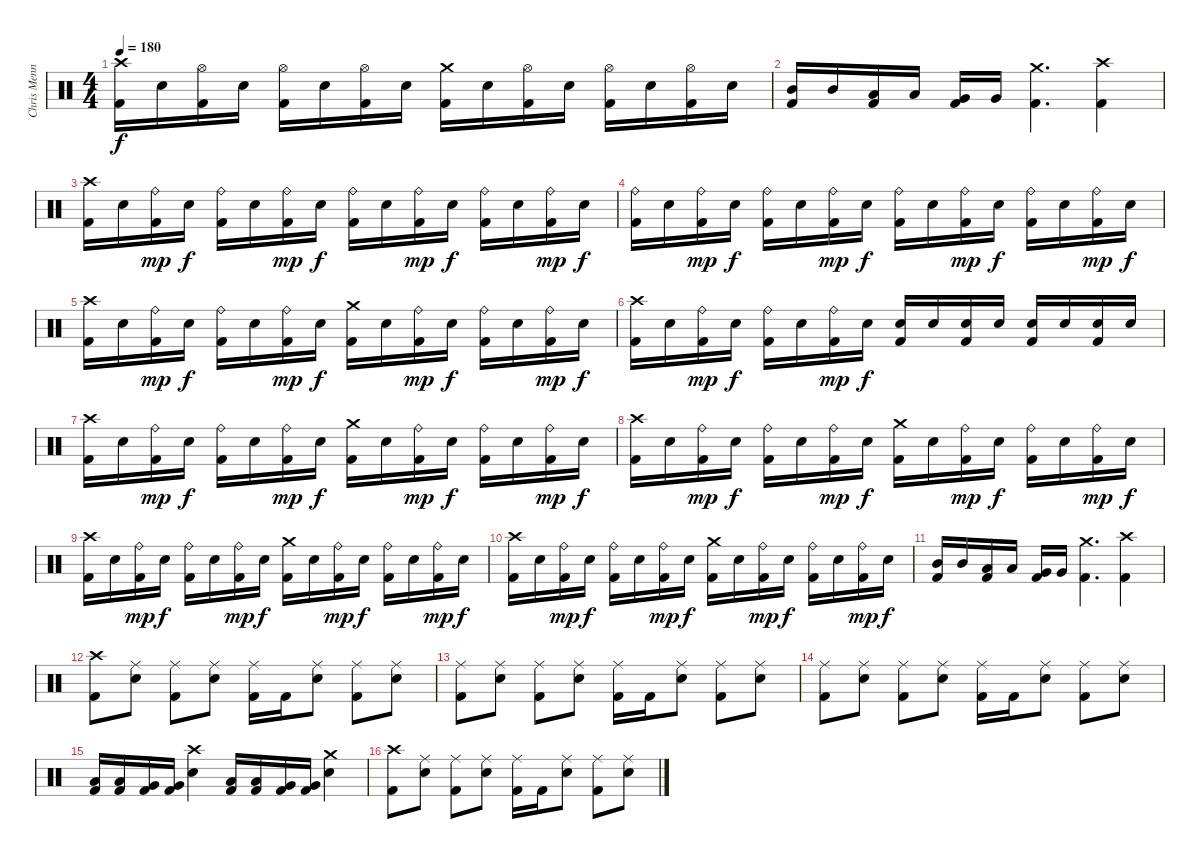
\track ("Chris Menning" "Chris Menn") {instrument percussion}
\staff {score}
\articulation defaults
\ts (4 4)
\tempo 180
\clef neutral
\ks c
("Crash high (hit)" "Kick (hit) 2").16{dy f} "Electric Snare (hit)".16 ("Hi-Hat (open)" "Kick (hit) 2").16 "Electric Snare (hit)".16 ("Hi-Hat (open)" "Kick (hit) 2").16 "Electric Snare (hit)".16 ("Hi-Hat (open)" "Kick (hit) 2").16 "Electric Snare (hit)".16 ("Crash medium (hit)" "Kick (hit) 2").16 "Electric Snare (hit)".16 ("Hi-Hat (open)" "Kick (hit) 2").16 "Electric Snare (hit)".16 ("Hi-Hat (open)" "Kick (hit) 2").16 "Electric Snare (hit)".16 ("Hi-Hat (open)" "Kick (hit) 2").16 "Electric Snare (hit)".16 |
("Mid Tom (hit)" "Kick (hit) 2").16 "Mid Tom (hit)".16 ("Low Tom (hit)" "Kick (hit) 2").16 "Low Tom (hit)".16 ("Very Low Tom (hit)" "Kick (hit) 2").16 "Very Low Tom (hit)".16 ("Crash medium (hit)" "Kick (hit) 2").4{d} ("Crash high (hit)" "Kick (hit) 2").4 |
("Crash high (hit)" "Kick (hit) 2").16 "Electric Snare (hit)".16 ("Ride (bell)" "Kick (hit) 2").16{dy mp} "Electric Snare (hit)".16{dy f} ("Ride (bell)" "Kick (hit) 2").16 "Electric Snare (hit)".16 ("Ride (bell)" "Kick (hit) 2").16{dy mp} "Electric Snare (hit)".16{dy f} ("Ride (bell)" "Kick (hit) 2").16 "Electric Snare (hit)".16 ("Ride (bell)" "Kick (hit) 2").16{dy mp} "Electric Snare (hit)".16{dy f} ("Ride (bell)" "Kick (hit) 2").16 "Electric Snare (hit)".16 ("Ride (bell)" "Kick (hit) 2").16{dy mp} "Electric Snare (hit)".16{dy f} |
("Ride (bell)" "Kick (hit) 2").16 "Electric Snare (hit)".16 ("Ride (bell)" "Kick (hit) 2").16{dy mp} "Electric Snare (hit)".16{dy f} ("Ride (bell)" "Kick (hit) 2").16 "Electric Snare (hit)".16 ("Ride (bell)" "Kick (hit) 2").16{dy mp} "Electric Snare (hit)".16{dy f} ("Ride (bell)" "Kick (hit) 2").16 "Electric Snare (hit)".16 ("Ride (bell)" "Kick (hit) 2").16{dy mp} "Electric Snare (hit)".16{dy f} ("Ride (bell)" "Kick (hit) 2").16 "Electric Snare (hit)".16 ("Ride (bell)" "Kick (hit) 2").16{dy mp} "Electric Snare (hit)".16{dy f} |
("Crash high (hit)" "Kick (hit) 2").16 "Electric Snare (hit)".16 ("Ride (bell)" "Kick (hit) 2").16{dy mp} "Electric Snare (hit)".16{dy f} ("Ride (bell)" "Kick (hit) 2").16 "Electric Snare (hit)".16 ("Ride (bell)" "Kick (hit) 2").16{dy mp} "Electric Snare (hit)".16{dy f} ("Crash medium (hit)" "Kick (hit) 2").16 "Electric Snare (hit)".16 ("Ride (bell)" "Kick (hit) 2").16{dy mp} "Electric Snare (hit)".16{dy f} ("Ride (bell)" "Kick (hit) 2").16 "Electric Snare (hit)".16 ("Ride (bell)" "Kick (hit) 2").16{dy mp} "Electric Snare (hit)".16{dy f} |
("Crash high (hit)" "Kick (hit) 2").16 "Electric Snare (hit)".16 ("Ride (bell)" "Kick (hit) 2").16{dy mp} "Electric Snare (hit)".16{dy f} ("Ride (bell)" "Kick (hit) 2").16 "Electric Snare (hit)".16 ("Ride (bell)" "Kick (hit) 2").16{dy mp} "Electric Snare (hit)".16{dy f} ("Electric Snare (hit)" "Kick (hit) 2").16 "Electric Snare (hit)".16 ("Electric Snare (hit)" "Kick (hit) 2").16 "Electric Snare (hit)".16 ("Electric Snare (hit)" "Kick (hit) 2").16 "Electric Snare (hit)".16 ("Electric Snare (hit)" "Kick (hit) 2").16 "Electric Snare (hit)".16 |
("Crash high (hit)" "Kick (hit) 2").16 "Electric Snare (hit)".16 ("Ride (bell)" "Kick (hit) 2").16{dy mp} "Electric Snare (hit)".16{dy f} ("Ride (bell)" "Kick (hit) 2").16 "Electric Snare (hit)".16 ("Ride (bell)" "Kick (hit) 2").16{dy mp} "Electric Snare (hit)".16{dy f} ("Crash medium (hit)" "Kick (hit) 2").16 "Electric Snare (hit)".16 ("Ride (bell)" "Kick (hit) 2").16{dy mp} "Electric Snare (hit)".16{dy f} ("Ride (bell)" "Kick (hit) 2").16 "Electric Snare (hit)".16 ("Ride (bell)" "Kick (hit) 2").16{dy mp} "Electric Snare (hit)".16{dy f} |
("Crash high (hit)" "Kick (hit) 2").16 "Electric Snare (hit)".16 ("Ride (bell)" "Kick (hit) 2").16{dy mp} "Electric Snare (hit)".16{dy f} ("Ride (bell)" "Kick (hit) 2").16 "Electric Snare (hit)".16 ("Ride (bell)" "Kick (hit) 2").16{dy mp} "Electric Snare (hit)".16{dy f} ("Crash medium (hit)" "Kick (hit) 2").16 "Electric Snare (hit)".16 ("Ride (bell)" "Kick (hit) 2").16{dy mp} "Electric Snare (hit)".16{dy f} ("Ride (bell)" "Kick (hit) 2").16 "Electric Snare (hit)".16 ("Ride (bell)" "Kick (hit) 2").16{dy mp} "Electric Snare (hit)".16{dy f} |
("Crash high (hit)" "Kick (hit) 2").16 "Electric Snare (hit)".16 ("Ride (bell)" "Kick (hit) 2").16{dy mp} "Electric Snare (hit)".16{dy f} ("Ride (bell)" "Kick (hit) 2").16 "Electric Snare (hit)".16 ("Ride (bell)" "Kick (hit) 2").16{dy mp} "Electric Snare (hit)".16{dy f} ("Crash medium (hit)" "Kick (hit) 2").16 "Electric Snare (hit)".16 ("Ride (bell)" "Kick (hit) 2").16{dy mp} "Electric Snare (hit)".16{dy f} ("Ride (bell)" "Kick (hit) 2").16 "Electric Snare (hit)".16 ("Ride (bell)" "Kick (hit) 2").16{dy mp} "Electric Snare (hit)".16{dy f} |
("Crash high (hit)" "Kick (hit) 2").16 "Electric Snare (hit)".16 ("Ride (bell)" "Kick (hit) 2").16{dy mp} "Electric Snare (hit)".16{dy f} ("Ride (bell)" "Kick (hit) 2").16 "Electric Snare (hit)".16 ("Ride (bell)" "Kick (hit) 2").16{dy mp} "Electric Snare (hit)".16{dy f} ("Crash medium (hit)" "Kick (hit) 2").16 "Electric Snare (hit)".16 ("Ride (bell)" "Kick (hit) 2").16{dy mp} "Electric Snare (hit)".16{dy f} ("Ride (bell)" "Kick (hit) 2").16 "Electric Snare (hit)".16 ("Ride (bell)" "Kick (hit) 2").16{dy mp} "Electric Snare (hit)".16{dy f} |
("Mid Tom (hit)" "Kick (hit) 2").16 "Mid Tom (hit)".16 ("Low Tom (hit)" "Kick (hit) 2").16 "Low Tom (hit)".16 ("Very Low Tom (hit)" "Kick (hit) 2").16 "Very Low Tom (hit)".16 ("Crash medium (hit)" "Kick (hit) 2").4{d} ("Crash high (hit)" "Kick (hit) 2").4 |
("Crash high (hit)" "Kick (hit) 2").8 ("Ride (middle)" "Electric Snare (hit)").8 ("Ride (middle)" "Kick (hit) 2").8 ("Ride (middle)" "Electric Snare (hit)").8 ("Ride (middle)" "Kick (hit) 2").16 "Kick (hit) 2".16 ("Ride (middle)" "Electric Snare (hit)").8 ("Ride (middle)" "Kick (hit) 2").8 ("Ride (middle)" "Electric Snare (hit)").8 |
("Ride (middle)" "Kick (hit) 2").8 ("Ride (middle)" "Electric Snare (hit)").8 ("Ride (middle)" "Kick (hit) 2").8 ("Ride (middle)" "Electric Snare (hit)").8 ("Ride (middle)" "Kick (hit) 2").16 "Kick (hit) 2".16 ("Ride (middle)" "Electric Snare (hit)").8 ("Ride (middle)" "Kick (hit) 2").8 ("Ride (middle)" "Electric Snare (hit)").8 |
("Ride (middle)" "Kick (hit) 2").8 ("Ride (middle)" "Electric Snare (hit)").8 ("Ride (middle)" "Kick (hit) 2").8 ("Ride (middle)" "Electric Snare (hit)").8 ("Ride (middle)" "Kick (hit) 2").16 "Kick (hit) 2".16 ("Ride (middle)" "Electric Snare (hit)").8 ("Ride (middle)" "Kick (hit) 2").8 ("Ride (middle)" "Electric Snare (hit)").8 |
("Low Tom (hit)" "Kick (hit) 2").16 ("Low Tom (hit)" "Kick (hit) 2").16 ("Very Low Tom (hit)" "Kick (hit) 2").16 ("Very Low Tom (hit)" "Kick (hit) 2").16 ("Crash high (hit)" "Electric Snare (hit)").4 ("Low Tom (hit)" "Kick (hit) 2").16 ("Low Tom (hit)" "Kick (hit) 2").16 ("Very Low Tom (hit)" "Kick (hit) 2").16 ("Very Low Tom (hit)" "Kick (hit) 2").16 ("Crash medium (hit)" "Electric Snare (hit)").4 |
("Crash high (hit)" "Kick (hit) 2").8 ("Ride (middle)" "Electric Snare (hit)").8 ("Ride (middle)" "Kick (hit) 2").8 ("Ride (middle)" "Electric Snare (hit)").8 ("Ride (middle)" "Kick (hit) 2").16 "Kick (hit) 2".16 ("Ride (middle)" "Electric Snare (hit)").8 ("Ride (middle)" "Kick (hit) 2").8 ("Ride (middle)" "Electric Snare (hit)").8
